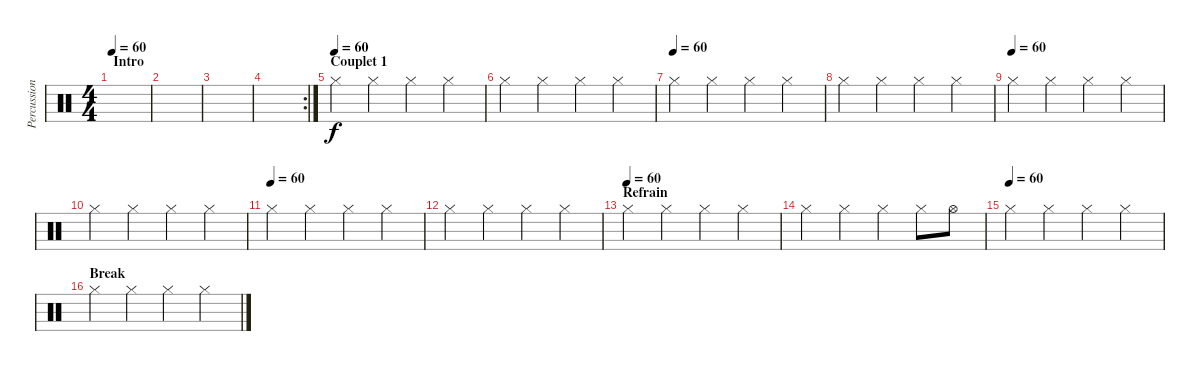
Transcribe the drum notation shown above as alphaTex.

\track ("Percussions" "Percussion") {instrument percussion}
\staff {score}
\articulation defaults
\ts (4 4)
\section ("" "Intro")
\tempo 60
\tempo 120
\tempo 60
\clef neutral
\ks c
|
|
|
\rc 2
|
\section ("" "Couplet 1")
\tempo (60)
"Hi-Hat (closed)".4 "Hi-Hat (closed)".4 "Hi-Hat (closed)".4 "Hi-Hat (closed)".4 |
"Hi-Hat (closed)".4 "Hi-Hat (closed)".4 "Hi-Hat (closed)".4 "Hi-Hat (closed)".4 |
\tempo (60)
"Hi-Hat (closed)".4 "Hi-Hat (closed)".4 "Hi-Hat (closed)".4 "Hi-Hat (closed)".4 |
"Hi-Hat (closed)".4 "Hi-Hat (closed)".4 "Hi-Hat (closed)".4 "Hi-Hat (closed)".4 |
\tempo (60)
"Hi-Hat (closed)".4 "Hi-Hat (closed)".4 "Hi-Hat (closed)".4 "Hi-Hat (closed)".4 |
"Hi-Hat (closed)".4 "Hi-Hat (closed)".4 "Hi-Hat (closed)".4 "Hi-Hat (closed)".4 |
\tempo (60)
"Hi-Hat (closed)".4 "Hi-Hat (closed)".4 "Hi-Hat (closed)".4 "Hi-Hat (closed)".4 |
"Hi-Hat (closed)".4 "Hi-Hat (closed)".4 "Hi-Hat (closed)".4 "Hi-Hat (closed)".4 |
\section ("" "Refrain")
\tempo (60)
"Hi-Hat (closed)".4 "Hi-Hat (closed)".4 "Hi-Hat (closed)".4 "Hi-Hat (closed)".4 |
"Hi-Hat (closed)".4 "Hi-Hat (closed)".4 "Hi-Hat (closed)".4 "Hi-Hat (closed)".8 "Hi-Hat (open)".8 |
\tempo (60)
"Hi-Hat (closed)".4 "Hi-Hat (closed)".4 "Hi-Hat (closed)".4 "Hi-Hat (closed)".4 |
\section ("" "Break")
"Hi-Hat (closed)".4 "Hi-Hat (closed)".4 "Hi-Hat (closed)".4 "Hi-Hat (closed)".4
